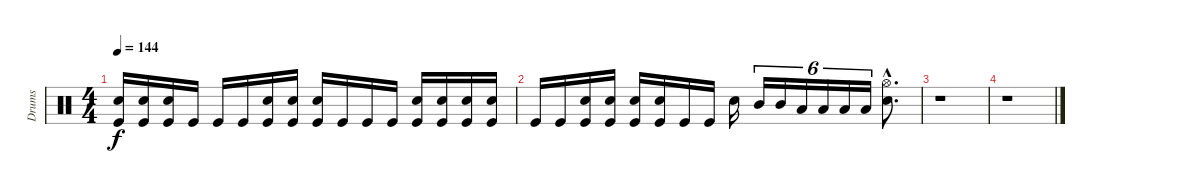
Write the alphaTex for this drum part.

\track ("Drums" "Drums") {instrument percussion}
\staff {score}
\articulation defaults
\ts (4 4)
\tempo 144
\clef neutral
\ks c
("Electric Snare (hit)" "Kick (hit)").16{dy f} ("Electric Snare (hit)" "Kick (hit)").16 ("Electric Snare (hit)" "Kick (hit)").16 "Kick (hit)".16 "Kick (hit)".16 "Kick (hit)".16 ("Electric Snare (hit)" "Kick (hit)").16 ("Electric Snare (hit)" "Kick (hit)").16 ("Electric Snare (hit)" "Kick (hit)").16 "Kick (hit)".16 "Kick (hit)".16 "Kick (hit)".16 ("Electric Snare (hit)" "Kick (hit)").16 ("Electric Snare (hit)" "Kick (hit)").16 ("Electric Snare (hit)" "Kick (hit)").16 ("Electric Snare (hit)" "Kick (hit)").16 |
"Kick (hit)".16 "Kick (hit)".16 ("Electric Snare (hit)" "Kick (hit)").16 ("Electric Snare (hit)" "Kick (hit)").16 ("Electric Snare (hit)" "Kick (hit)").16 ("Electric Snare (hit)" "Kick (hit)").16 "Kick (hit)".16 "Kick (hit)".16 "Electric Snare (hit)".16 "Mid Tom (hit)".16{tu (6 4)} "Mid Tom (hit)".16{tu (6 4)} "Low Tom (hit)".16{tu (6 4)} "Low Tom (hit)".16{tu (6 4)} "Low Tom (hit)".16{tu (6 4)} "Low Tom (hit)".16{tu (6 4)} ("Hi-Hat (open)"{hac} "Electric Snare (hit)"{hac}).8{d} |
r.1 |
r.1
